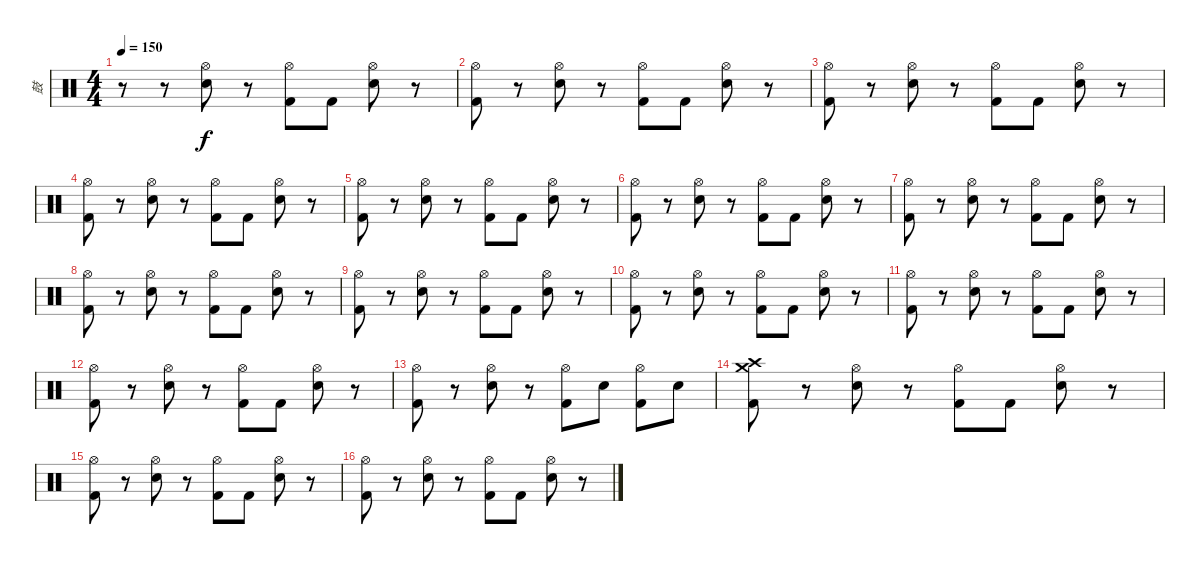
\track ("鼓" "鼓") {instrument percussion}
\staff {score}
\articulation defaults
\ts (4 4)
\tempo 150
\clef neutral
\ks c
r.8{dy f} r.8 ("Hi-Hat (open)" "Electric Snare (hit)").8 r.8 ("Hi-Hat (open)" "Kick (hit) 2").8 "Kick (hit) 2".8 ("Hi-Hat (open)" "Electric Snare (hit)").8 r.8 |
("Hi-Hat (open)" "Kick (hit) 2").8 r.8 ("Hi-Hat (open)" "Electric Snare (hit)").8 r.8 ("Hi-Hat (open)" "Kick (hit) 2").8 "Kick (hit) 2".8 ("Hi-Hat (open)" "Electric Snare (hit)").8 r.8 |
("Hi-Hat (open)" "Kick (hit) 2").8 r.8 ("Hi-Hat (open)" "Electric Snare (hit)").8 r.8 ("Hi-Hat (open)" "Kick (hit) 2").8 "Kick (hit) 2".8 ("Hi-Hat (open)" "Electric Snare (hit)").8 r.8 |
("Hi-Hat (open)" "Kick (hit) 2").8 r.8 ("Hi-Hat (open)" "Electric Snare (hit)").8 r.8 ("Hi-Hat (open)" "Kick (hit) 2").8 "Kick (hit) 2".8 ("Hi-Hat (open)" "Electric Snare (hit)").8 r.8 |
("Hi-Hat (open)" "Kick (hit) 2").8 r.8 ("Hi-Hat (open)" "Electric Snare (hit)").8 r.8 ("Hi-Hat (open)" "Kick (hit) 2").8 "Kick (hit) 2".8 ("Hi-Hat (open)" "Electric Snare (hit)").8 r.8 |
("Hi-Hat (open)" "Kick (hit) 2").8 r.8 ("Hi-Hat (open)" "Electric Snare (hit)").8 r.8 ("Hi-Hat (open)" "Kick (hit) 2").8 "Kick (hit) 2".8 ("Hi-Hat (open)" "Electric Snare (hit)").8 r.8 |
("Hi-Hat (open)" "Kick (hit) 2").8 r.8 ("Hi-Hat (open)" "Electric Snare (hit)").8 r.8 ("Hi-Hat (open)" "Kick (hit) 2").8 "Kick (hit) 2".8 ("Hi-Hat (open)" "Electric Snare (hit)").8 r.8 |
("Hi-Hat (open)" "Kick (hit) 2").8 r.8 ("Hi-Hat (open)" "Electric Snare (hit)").8 r.8 ("Hi-Hat (open)" "Kick (hit) 2").8 "Kick (hit) 2".8 ("Hi-Hat (open)" "Electric Snare (hit)").8 r.8 |
("Hi-Hat (open)" "Kick (hit) 2").8 r.8 ("Hi-Hat (open)" "Electric Snare (hit)").8 r.8 ("Hi-Hat (open)" "Kick (hit) 2").8 "Kick (hit) 2".8 ("Hi-Hat (open)" "Electric Snare (hit)").8 r.8 |
("Hi-Hat (open)" "Kick (hit) 2").8 r.8 ("Hi-Hat (open)" "Electric Snare (hit)").8 r.8 ("Hi-Hat (open)" "Kick (hit) 2").8 "Kick (hit) 2".8 ("Hi-Hat (open)" "Electric Snare (hit)").8 r.8 |
("Hi-Hat (open)" "Kick (hit) 2").8 r.8 ("Hi-Hat (open)" "Electric Snare (hit)").8 r.8 ("Hi-Hat (open)" "Kick (hit) 2").8 "Kick (hit) 2".8 ("Hi-Hat (open)" "Electric Snare (hit)").8 r.8 |
("Hi-Hat (open)" "Kick (hit) 2").8 r.8 ("Hi-Hat (open)" "Electric Snare (hit)").8 r.8 ("Hi-Hat (open)" "Kick (hit) 2").8 "Kick (hit) 2".8 ("Hi-Hat (open)" "Electric Snare (hit)").8 r.8 |
("Hi-Hat (open)" "Kick (hit) 2").8 r.8 ("Hi-Hat (open)" "Electric Snare (hit)").8 r.8 ("Hi-Hat (open)" "Kick (hit) 2").8 "Electric Snare (hit)".8 ("Hi-Hat (open)" "Kick (hit) 2").8 "Electric Snare (hit)".8 |
("Crash high (hit)" "Crash medium (hit)" "Kick (hit) 2").8 r.8 ("Hi-Hat (open)" "Electric Snare (hit)").8 r.8 ("Hi-Hat (open)" "Kick (hit) 2").8 "Kick (hit) 2".8 ("Hi-Hat (open)" "Electric Snare (hit)").8 r.8 |
("Hi-Hat (open)" "Kick (hit) 2").8 r.8 ("Hi-Hat (open)" "Electric Snare (hit)").8 r.8 ("Hi-Hat (open)" "Kick (hit) 2").8 "Kick (hit) 2".8 ("Hi-Hat (open)" "Electric Snare (hit)").8 r.8 |
("Hi-Hat (open)" "Kick (hit) 2").8 r.8 ("Hi-Hat (open)" "Electric Snare (hit)").8 r.8 ("Hi-Hat (open)" "Kick (hit) 2").8 "Kick (hit) 2".8 ("Hi-Hat (open)" "Electric Snare (hit)").8 r.8
